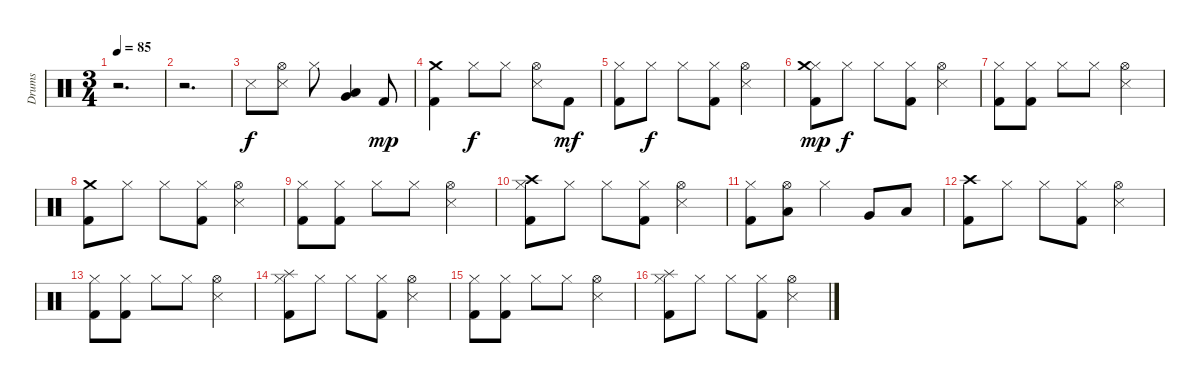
\track ("Drums" "Drums") {instrument percussion}
\staff {score}
\articulation defaults
\ts (3 4)
\tempo 85
\clef neutral
\ks c
r.2{d dy f} |
r.2{d} |
"Snare (side stick) 3".8 ("Snare (side stick) 3" "Hi-Hat (open)").8 "Hi-Hat (closed)".8 ("Very Low Tom (hit)" "Low Tom (hit)").4 "Kick (hit) 2".8{dy mp} |
("Kick (hit) 2" "Crash medium (hit)").4 "Hi-Hat (closed)".8{dy f} "Hi-Hat (closed)".8 ("Snare (side stick) 3" "Hi-Hat (open)").8 "Kick (hit) 2".8{dy mf} |
("Kick (hit) 2" "Hi-Hat (closed)").8 "Hi-Hat (closed)".8{dy f} "Hi-Hat (closed)".8 ("Kick (hit) 2" "Hi-Hat (closed)").8 ("Snare (side stick) 3" "Hi-Hat (open)").4 |
("Kick (hit) 2" "Hi-Hat (closed)" "Crash medium (hit)").8{dy mp} "Hi-Hat (closed)".8{dy f} "Hi-Hat (closed)".8 ("Kick (hit) 2" "Hi-Hat (closed)").8 ("Snare (side stick) 3" "Hi-Hat (open)").4 |
("Kick (hit) 2" "Hi-Hat (closed)").8 ("Kick (hit) 2" "Hi-Hat (closed)").8 "Hi-Hat (closed)".8 "Hi-Hat (closed)".8 ("Snare (side stick) 3" "Hi-Hat (open)").4 |
("Kick (hit) 2" "Crash medium (hit)").8 "Hi-Hat (closed)".8 "Hi-Hat (closed)".8 ("Kick (hit) 2" "Hi-Hat (closed)").8 ("Snare (side stick) 3" "Hi-Hat (open)").4 |
("Kick (hit) 2" "Hi-Hat (closed)").8 ("Kick (hit) 2" "Hi-Hat (closed)").8 "Hi-Hat (closed)".8 "Hi-Hat (closed)".8 ("Snare (side stick) 3" "Hi-Hat (open)").4 |
("Kick (hit) 2" "Hi-Hat (closed)" "Crash high (hit)").8 "Hi-Hat (closed)".8 "Hi-Hat (closed)".8 ("Kick (hit) 2" "Hi-Hat (closed)").8 ("Snare (side stick) 3" "Hi-Hat (open)").4 |
("Kick (hit) 2" "Hi-Hat (closed)").8 ("Low Tom (hit)" "Hi-Hat (open)").8 "Hi-Hat (closed)".4 "Very Low Tom (hit)".8 "Low Floor Tom (hit)".8 |
("Kick (hit) 2" "Crash high (hit)").8 "Hi-Hat (closed)".8 "Hi-Hat (closed)".8 ("Kick (hit) 2" "Hi-Hat (closed)").8 ("Snare (side stick) 3" "Hi-Hat (open)").4 |
("Kick (hit) 2" "Hi-Hat (closed)").8 ("Kick (hit) 2" "Hi-Hat (closed)").8 "Hi-Hat (closed)".8 "Hi-Hat (closed)".8 ("Snare (side stick) 3" "Hi-Hat (open)").4 |
("Kick (hit) 2" "Hi-Hat (closed)" "Splash (hit)").8 "Hi-Hat (closed)".8 "Hi-Hat (closed)".8 ("Kick (hit) 2" "Hi-Hat (closed)").8 ("Snare (side stick) 3" "Hi-Hat (open)").4 |
("Kick (hit) 2" "Hi-Hat (closed)").8 ("Kick (hit) 2" "Hi-Hat (closed)").8 "Hi-Hat (closed)".8 "Hi-Hat (closed)".8 ("Snare (side stick) 3" "Hi-Hat (open)").4 |
("Kick (hit) 2" "Hi-Hat (closed)" "Splash (hit)").8 "Hi-Hat (closed)".8 "Hi-Hat (closed)".8 ("Kick (hit) 2" "Hi-Hat (closed)").8 ("Snare (side stick) 3" "Hi-Hat (open)").4
